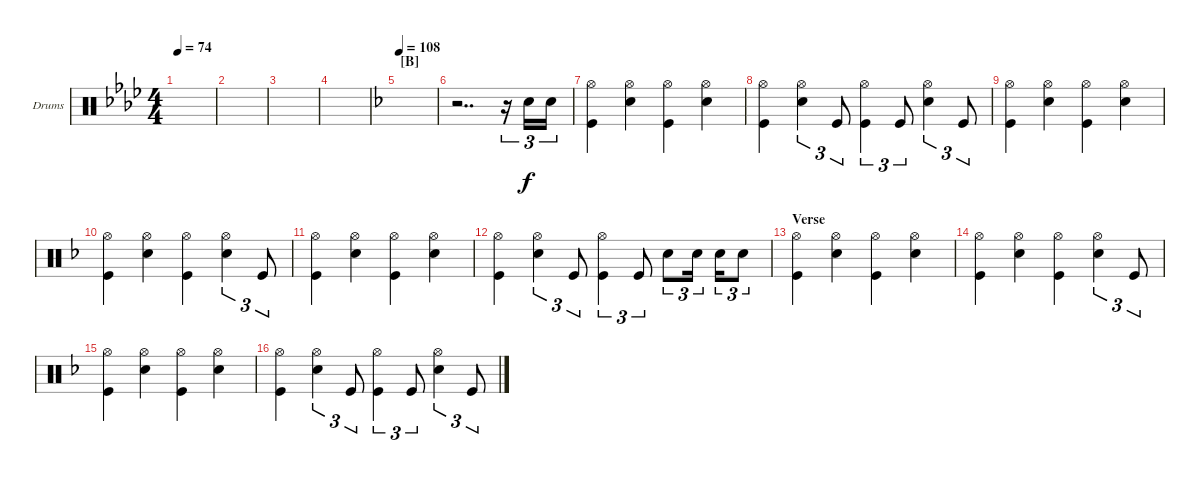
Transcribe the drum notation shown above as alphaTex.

\defaultSystemsLayout 4
\bracketExtendMode groupsimilarinstruments
\firstSystemTrackNameOrientation horizontal
\otherSystemsTrackNameOrientation horizontal
\track ("Drumkit" "Drums") {instrument percussion}
\staff {score}
\articulation defaults
\ts (4 4)
\tempo 74
\clef neutral
\ks ab
|
|
|
|
\section ("B" "")
\tempo 108
\ks f
|
r.2{dd} r.16{tu (3 2)} "Snare (hit) 2".16{tu (3 2)} "Snare (hit) 2".16{tu (3 2)} |
("Hi-Hat (open)" "Kick (hit)").4 ("Snare (hit) 2" "Hi-Hat (open)").4 ("Hi-Hat (open)" "Kick (hit)").4 ("Snare (hit) 2" "Hi-Hat (open)").4 |
("Hi-Hat (open)" "Kick (hit)").4 ("Snare (hit) 2" "Hi-Hat (open)").4{tu (3 2)} "Kick (hit)".8{tu (3 2)} ("Hi-Hat (open)" "Kick (hit)").4{tu (3 2)} "Kick (hit)".8{tu (3 2)} ("Snare (hit) 2" "Hi-Hat (open)").4{tu (3 2)} "Kick (hit)".8{tu (3 2)} |
("Hi-Hat (open)" "Kick (hit)").4 ("Snare (hit) 2" "Hi-Hat (open)").4 ("Hi-Hat (open)" "Kick (hit)").4 ("Snare (hit) 2" "Hi-Hat (open)").4 |
("Hi-Hat (open)" "Kick (hit)").4 ("Snare (hit) 2" "Hi-Hat (open)").4 ("Hi-Hat (open)" "Kick (hit)").4 ("Snare (hit) 2" "Hi-Hat (open)").4{tu (3 2)} "Kick (hit)".8{tu (3 2)} |
("Hi-Hat (open)" "Kick (hit)").4 ("Snare (hit) 2" "Hi-Hat (open)").4 ("Hi-Hat (open)" "Kick (hit)").4 ("Snare (hit) 2" "Hi-Hat (open)").4 |
("Hi-Hat (open)" "Kick (hit)").4 ("Snare (hit) 2" "Hi-Hat (open)").4{tu (3 2)} "Kick (hit)".8{tu (3 2)} ("Hi-Hat (open)" "Kick (hit)").4{tu (3 2)} "Kick (hit)".8{tu (3 2)} "Snare (hit) 2".8{tu (3 2)} "Snare (hit) 2".16{tu (3 2)} "Snare (hit) 2".16{tu (3 2)} "Snare (hit) 2".8{tu (3 2)} |
\section ("" "Verse")
("Hi-Hat (open)" "Kick (hit)").4 ("Snare (hit) 2" "Hi-Hat (open)").4 ("Hi-Hat (open)" "Kick (hit)").4 ("Snare (hit) 2" "Hi-Hat (open)").4 |
("Hi-Hat (open)" "Kick (hit)").4 ("Snare (hit) 2" "Hi-Hat (open)").4 ("Hi-Hat (open)" "Kick (hit)").4 ("Snare (hit) 2" "Hi-Hat (open)").4{tu (3 2)} "Kick (hit)".8{tu (3 2)} |
("Hi-Hat (open)" "Kick (hit)").4 ("Snare (hit) 2" "Hi-Hat (open)").4 ("Hi-Hat (open)" "Kick (hit)").4 ("Snare (hit) 2" "Hi-Hat (open)").4 |
("Hi-Hat (open)" "Kick (hit)").4 ("Snare (hit) 2" "Hi-Hat (open)").4{tu (3 2)} "Kick (hit)".8{tu (3 2)} ("Hi-Hat (open)" "Kick (hit)").4{tu (3 2)} "Kick (hit)".8{tu (3 2)} ("Snare (hit) 2" "Hi-Hat (open)").4{tu (3 2)} "Kick (hit)".8{tu (3 2)}
